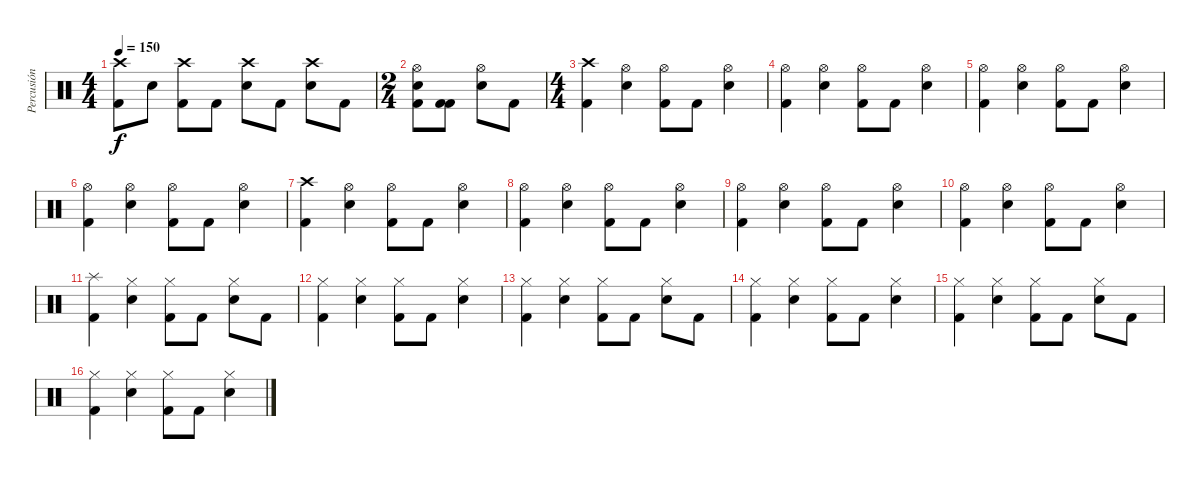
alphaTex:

\track ("Percusión" "Percusión") {instrument percussion}
\staff {score}
\articulation defaults
\ts (4 4)
\tempo 150
\clef neutral
\ks c
("Crash high (hit)" "Kick (hit) 2").8{dy f} "Electric Snare (hit)".8 ("Crash high (hit)" "Kick (hit) 2").8 "Kick (hit) 2".8 ("Crash high (hit)" "Electric Snare (hit)").8 "Kick (hit) 2".8 ("Crash high (hit)" "Electric Snare (hit)").8 "Kick (hit) 2".8 |
\ts (2 4)
("Hi-Hat (open)" "Electric Snare (hit)" "Kick (hit) 2").8 ("Kick (hit) 2" "Kick (hit) 2").8 ("Hi-Hat (open)" "Electric Snare (hit)").8 "Kick (hit) 2".8 |
\ts (4 4)
("Crash high (hit)" "Kick (hit) 2").4 ("Hi-Hat (open)" "Electric Snare (hit)").4 ("Hi-Hat (open)" "Kick (hit) 2").8 "Kick (hit) 2".8 ("Hi-Hat (open)" "Electric Snare (hit)").4 |
("Hi-Hat (open)" "Kick (hit) 2").4 ("Hi-Hat (open)" "Electric Snare (hit)").4 ("Hi-Hat (open)" "Kick (hit) 2").8 "Kick (hit) 2".8 ("Hi-Hat (open)" "Electric Snare (hit)").4 |
("Hi-Hat (open)" "Kick (hit) 2").4 ("Hi-Hat (open)" "Electric Snare (hit)").4 ("Hi-Hat (open)" "Kick (hit) 2").8 "Kick (hit) 2".8 ("Hi-Hat (open)" "Electric Snare (hit)").4 |
("Hi-Hat (open)" "Kick (hit) 2").4 ("Hi-Hat (open)" "Electric Snare (hit)").4 ("Hi-Hat (open)" "Kick (hit) 2").8 "Kick (hit) 2".8 ("Hi-Hat (open)" "Electric Snare (hit)").4 |
("Crash high (hit)" "Kick (hit) 2").4 ("Hi-Hat (open)" "Electric Snare (hit)").4 ("Hi-Hat (open)" "Kick (hit) 2").8 "Kick (hit) 2".8 ("Hi-Hat (open)" "Electric Snare (hit)").4 |
("Hi-Hat (open)" "Kick (hit) 2").4 ("Hi-Hat (open)" "Electric Snare (hit)").4 ("Hi-Hat (open)" "Kick (hit) 2").8 "Kick (hit) 2".8 ("Hi-Hat (open)" "Electric Snare (hit)").4 |
("Hi-Hat (open)" "Kick (hit) 2").4 ("Hi-Hat (open)" "Electric Snare (hit)").4 ("Hi-Hat (open)" "Kick (hit) 2").8 "Kick (hit) 2".8 ("Hi-Hat (open)" "Electric Snare (hit)").4 |
("Hi-Hat (open)" "Kick (hit) 2").4 ("Hi-Hat (open)" "Electric Snare (hit)").4 ("Hi-Hat (open)" "Kick (hit) 2").8 "Kick (hit) 2".8 ("Hi-Hat (open)" "Electric Snare (hit)").4 |
("Splash (hit)" "Kick (hit) 2").4 ("Hi-Hat (closed)" "Electric Snare (hit)").4 ("Hi-Hat (closed)" "Kick (hit) 2").8 "Kick (hit) 2".8 ("Hi-Hat (closed)" "Electric Snare (hit)").8 "Kick (hit) 2".8 |
("Hi-Hat (closed)" "Kick (hit) 2").4 ("Hi-Hat (closed)" "Electric Snare (hit)").4 ("Hi-Hat (closed)" "Kick (hit) 2").8 "Kick (hit) 2".8 ("Hi-Hat (closed)" "Electric Snare (hit)").4 |
("Hi-Hat (closed)" "Kick (hit) 2").4 ("Hi-Hat (closed)" "Electric Snare (hit)").4 ("Hi-Hat (closed)" "Kick (hit) 2").8 "Kick (hit) 2".8 ("Hi-Hat (closed)" "Electric Snare (hit)").8 "Kick (hit) 2".8 |
("Hi-Hat (closed)" "Kick (hit) 2").4 ("Hi-Hat (closed)" "Electric Snare (hit)").4 ("Hi-Hat (closed)" "Kick (hit) 2").8 "Kick (hit) 2".8 ("Hi-Hat (closed)" "Electric Snare (hit)").4 |
("Hi-Hat (closed)" "Kick (hit) 2").4 ("Hi-Hat (closed)" "Electric Snare (hit)").4 ("Hi-Hat (closed)" "Kick (hit) 2").8 "Kick (hit) 2".8 ("Hi-Hat (closed)" "Electric Snare (hit)").8 "Kick (hit) 2".8 |
("Hi-Hat (closed)" "Kick (hit) 2").4 ("Hi-Hat (closed)" "Electric Snare (hit)").4 ("Hi-Hat (closed)" "Kick (hit) 2").8 "Kick (hit) 2".8 ("Hi-Hat (closed)" "Electric Snare (hit)").4
